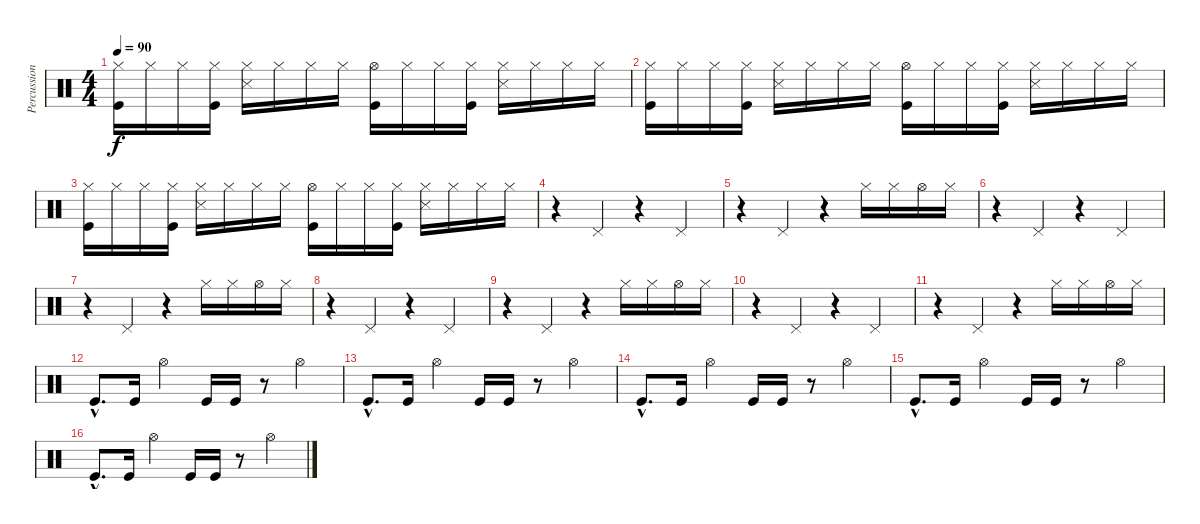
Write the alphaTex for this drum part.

\track ("Percussion" "Percussion") {instrument percussion}
\staff {score}
\articulation defaults
\ts (4 4)
\tempo 90
\clef neutral
\ks c
("Hi-Hat (closed)" "Kick (hit)").16{dy f} "Hi-Hat (closed)".16 "Hi-Hat (closed)".16 ("Hi-Hat (closed)" "Kick (hit)").16 ("Hi-Hat (closed)" "Snare (side stick) 3").16 "Hi-Hat (closed)".16 "Hi-Hat (closed)".16 "Hi-Hat (closed)".16 ("Hi-Hat (open)" "Kick (hit)").16 "Hi-Hat (closed)".16 "Hi-Hat (closed)".16 ("Hi-Hat (closed)" "Kick (hit)").16 ("Hi-Hat (closed)" "Snare (side stick) 3").16 "Hi-Hat (closed)".16 "Hi-Hat (closed)".16 "Hi-Hat (closed)".16 |
("Hi-Hat (closed)" "Kick (hit)").16 "Hi-Hat (closed)".16 "Hi-Hat (closed)".16 ("Hi-Hat (closed)" "Kick (hit)").16 ("Hi-Hat (closed)" "Snare (side stick) 3").16 "Hi-Hat (closed)".16 "Hi-Hat (closed)".16 "Hi-Hat (closed)".16 ("Hi-Hat (open)" "Kick (hit)").16 "Hi-Hat (closed)".16 "Hi-Hat (closed)".16 ("Hi-Hat (closed)" "Kick (hit)").16 ("Hi-Hat (closed)" "Snare (side stick) 3").16 "Hi-Hat (closed)".16 "Hi-Hat (closed)".16 "Hi-Hat (closed)".16 |
("Hi-Hat (closed)" "Kick (hit)").16 "Hi-Hat (closed)".16 "Hi-Hat (closed)".16 ("Hi-Hat (closed)" "Kick (hit)").16 ("Hi-Hat (closed)" "Snare (side stick) 3").16 "Hi-Hat (closed)".16 "Hi-Hat (closed)".16 "Hi-Hat (closed)".16 ("Hi-Hat (open)" "Kick (hit)").16 "Hi-Hat (closed)".16 "Hi-Hat (closed)".16 ("Hi-Hat (closed)" "Kick (hit)").16 ("Hi-Hat (closed)" "Snare (side stick) 3").16 "Hi-Hat (closed)".16 "Hi-Hat (closed)".16 "Hi-Hat (closed)".16 |
r.4 "Pedal Hi-Hat (hit)".4 r.4 "Pedal Hi-Hat (hit)".4 |
r.4 "Pedal Hi-Hat (hit)".4 r.4 "Hi-Hat (closed)".16 "Hi-Hat (closed)".16 "Hi-Hat (open)".16 "Hi-Hat (closed)".16 |
r.4 "Pedal Hi-Hat (hit)".4 r.4 "Pedal Hi-Hat (hit)".4 |
r.4 "Pedal Hi-Hat (hit)".4 r.4 "Hi-Hat (closed)".16 "Hi-Hat (closed)".16 "Hi-Hat (open)".16 "Hi-Hat (closed)".16 |
r.4 "Pedal Hi-Hat (hit)".4 r.4 "Pedal Hi-Hat (hit)".4 |
r.4 "Pedal Hi-Hat (hit)".4 r.4 "Hi-Hat (closed)".16 "Hi-Hat (closed)".16 "Hi-Hat (open)".16 "Hi-Hat (closed)".16 |
r.4 "Pedal Hi-Hat (hit)".4 r.4 "Pedal Hi-Hat (hit)".4 |
r.4 "Pedal Hi-Hat (hit)".4 r.4 "Hi-Hat (closed)".16 "Hi-Hat (closed)".16 "Hi-Hat (open)".16 "Hi-Hat (closed)".16 |
"Kick (hit)"{hac}.8{d} "Kick (hit)".16 "Hi-Hat (open)".4 "Kick (hit)".16 "Kick (hit)".16 r.8 "Hi-Hat (open)".4 |
"Kick (hit)"{hac}.8{d} "Kick (hit)".16 "Hi-Hat (open)".4 "Kick (hit)".16 "Kick (hit)".16 r.8 "Hi-Hat (open)".4 |
"Kick (hit)"{hac}.8{d} "Kick (hit)".16 "Hi-Hat (open)".4 "Kick (hit)".16 "Kick (hit)".16 r.8 "Hi-Hat (open)".4 |
"Kick (hit)"{hac}.8{d} "Kick (hit)".16 "Hi-Hat (open)".4 "Kick (hit)".16 "Kick (hit)".16 r.8 "Hi-Hat (open)".4 |
"Kick (hit)"{hac}.8{d} "Kick (hit)".16 "Hi-Hat (open)".4 "Kick (hit)".16 "Kick (hit)".16 r.8 "Hi-Hat (open)".4
